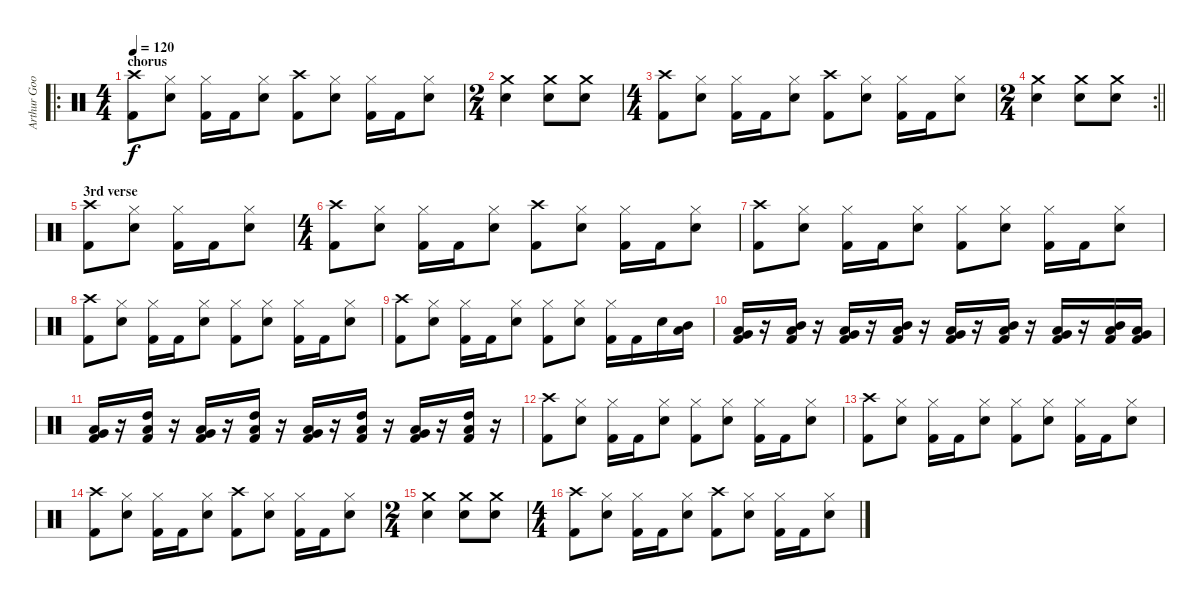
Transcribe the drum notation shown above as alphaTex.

\track ("Arthur Googy" "Arthur Goo") {instrument percussion}
\staff {score}
\articulation defaults
\ro
\ts (4 4)
\section ("" "chorus")
\tempo 120
\clef neutral
\ks c
("Crash high (hit)" "Kick (hit) 2").8{dy f} ("Hi-Hat (closed)" "Snare (hit) 2").8 ("Hi-Hat (closed)" "Kick (hit) 2").16 "Kick (hit) 2".16 ("Hi-Hat (closed)" "Snare (hit) 2").8 ("Crash high (hit)" "Kick (hit) 2").8 ("Hi-Hat (closed)" "Snare (hit) 2").8 ("Hi-Hat (closed)" "Kick (hit) 2").16 "Kick (hit) 2".16 ("Hi-Hat (closed)" "Snare (hit) 2").8 |
\ts (2 4)
("Crash medium (hit)" "Snare (hit) 2").4 ("Crash medium (hit)" "Snare (hit) 2").8 ("Crash medium (hit)" "Snare (hit) 2").8 |
\ts (4 4)
("Crash high (hit)" "Kick (hit) 2").8 ("Hi-Hat (closed)" "Snare (hit) 2").8 ("Hi-Hat (closed)" "Kick (hit) 2").16 "Kick (hit) 2".16 ("Hi-Hat (closed)" "Snare (hit) 2").8 ("Crash high (hit)" "Kick (hit) 2").8 ("Hi-Hat (closed)" "Snare (hit) 2").8 ("Hi-Hat (closed)" "Kick (hit) 2").16 "Kick (hit) 2".16 ("Hi-Hat (closed)" "Snare (hit) 2").8 |
\rc 2
\ts (2 4)
\barLineRight lightlight
("Crash medium (hit)" "Snare (hit) 2").4 ("Crash medium (hit)" "Snare (hit) 2").8 ("Crash medium (hit)" "Snare (hit) 2").8 |
\section ("" "3rd verse")
("Crash high (hit)" "Kick (hit) 2").8 ("Hi-Hat (closed)" "Snare (hit) 2").8 ("Hi-Hat (closed)" "Kick (hit) 2").16 "Kick (hit) 2".16 ("Hi-Hat (closed)" "Snare (hit) 2").8 |
\ts (4 4)
("Crash high (hit)" "Kick (hit) 2").8 ("Hi-Hat (closed)" "Snare (hit) 2").8 ("Hi-Hat (closed)" "Kick (hit) 2").16 "Kick (hit) 2".16 ("Hi-Hat (closed)" "Snare (hit) 2").8 ("Crash high (hit)" "Kick (hit) 2").8 ("Hi-Hat (closed)" "Snare (hit) 2").8 ("Hi-Hat (closed)" "Kick (hit) 2").16 "Kick (hit) 2".16 ("Hi-Hat (closed)" "Snare (hit) 2").8 |
("Crash high (hit)" "Kick (hit) 2").8 ("Hi-Hat (closed)" "Snare (hit) 2").8 ("Hi-Hat (closed)" "Kick (hit) 2").16 "Kick (hit) 2".16 ("Hi-Hat (closed)" "Snare (hit) 2").8 ("Hi-Hat (closed)" "Kick (hit) 2").8 ("Hi-Hat (closed)" "Snare (hit) 2").8 ("Hi-Hat (closed)" "Kick (hit) 2").16 "Kick (hit) 2".16 ("Hi-Hat (closed)" "Snare (hit) 2").8 |
("Crash high (hit)" "Kick (hit) 2").8 ("Hi-Hat (closed)" "Snare (hit) 2").8 ("Hi-Hat (closed)" "Kick (hit) 2").16 "Kick (hit) 2".16 ("Hi-Hat (closed)" "Snare (hit) 2").8 ("Hi-Hat (closed)" "Kick (hit) 2").8 ("Hi-Hat (closed)" "Snare (hit) 2").8 ("Hi-Hat (closed)" "Kick (hit) 2").16 "Kick (hit) 2".16 ("Hi-Hat (closed)" "Snare (hit) 2").8 |
("Crash high (hit)" "Kick (hit) 2").8 ("Hi-Hat (closed)" "Snare (hit) 2").8 ("Hi-Hat (closed)" "Kick (hit) 2").16 "Kick (hit) 2".16 ("Hi-Hat (closed)" "Snare (hit) 2").8 ("Hi-Hat (closed)" "Kick (hit) 2").8 ("Hi-Hat (closed)" "Snare (hit) 2").8 ("Hi-Hat (closed)" "Kick (hit) 2").16 "Kick (hit) 2".16 "Snare (hit) 2".16 ("Mid Tom (hit)" "Low Tom (hit)").16 |
("Low Tom (hit)" "Very Low Tom (hit)" "Kick (hit) 2").16 r.16 ("Mid Tom (hit)" "Low Tom (hit)" "Kick (hit) 2").16 r.16 ("Low Tom (hit)" "Very Low Tom (hit)" "Kick (hit) 2").16 r.16 ("Mid Tom (hit)" "Low Tom (hit)" "Kick (hit) 2").16 r.16 ("Low Tom (hit)" "Very Low Tom (hit)" "Kick (hit) 2").16 r.16 ("Mid Tom (hit)" "Low Tom (hit)" "Kick (hit) 2").16 r.16 ("Low Tom (hit)" "Very Low Tom (hit)" "Kick (hit) 2").16 r.16 ("Mid Tom (hit)" "Low Tom (hit)" "Kick (hit) 2").16 ("Low Tom (hit)" "Very Low Tom (hit)" "Kick (hit) 2").16 |
("Low Tom (hit)" "Very Low Tom (hit)" "Kick (hit) 2").16 r.16 ("High Tom (hit)" "Low Tom (hit)" "Kick (hit) 2").16 r.16 ("Low Tom (hit)" "Very Low Tom (hit)" "Kick (hit) 2").16 r.16 ("High Tom (hit)" "Low Tom (hit)" "Kick (hit) 2").16 r.16 ("Low Tom (hit)" "Very Low Tom (hit)" "Kick (hit) 2").16 r.16 ("High Tom (hit)" "Low Tom (hit)" "Kick (hit) 2").16 r.16 ("Low Tom (hit)" "Very Low Tom (hit)" "Kick (hit) 2").16 r.16 ("High Tom (hit)" "Low Tom (hit)" "Kick (hit) 2").16 r.16 |
("Crash high (hit)" "Kick (hit) 2").8 ("Hi-Hat (closed)" "Snare (hit) 2").8 ("Hi-Hat (closed)" "Kick (hit) 2").16 "Kick (hit) 2".16 ("Hi-Hat (closed)" "Snare (hit) 2").8 ("Hi-Hat (closed)" "Kick (hit) 2").8 ("Hi-Hat (closed)" "Snare (hit) 2").8 ("Hi-Hat (closed)" "Kick (hit) 2").16 "Kick (hit) 2".16 ("Hi-Hat (closed)" "Snare (hit) 2").8 |
("Crash high (hit)" "Kick (hit) 2").8 ("Hi-Hat (closed)" "Snare (hit) 2").8 ("Hi-Hat (closed)" "Kick (hit) 2").16 "Kick (hit) 2".16 ("Hi-Hat (closed)" "Snare (hit) 2").8 ("Hi-Hat (closed)" "Kick (hit) 2").8 ("Hi-Hat (closed)" "Snare (hit) 2").8 ("Hi-Hat (closed)" "Kick (hit) 2").16 "Kick (hit) 2".16 ("Hi-Hat (closed)" "Snare (hit) 2").8 |
("Crash high (hit)" "Kick (hit) 2").8 ("Hi-Hat (closed)" "Snare (hit) 2").8 ("Hi-Hat (closed)" "Kick (hit) 2").16 "Kick (hit) 2".16 ("Hi-Hat (closed)" "Snare (hit) 2").8 ("Crash high (hit)" "Kick (hit) 2").8 ("Hi-Hat (closed)" "Snare (hit) 2").8 ("Hi-Hat (closed)" "Kick (hit) 2").16 "Kick (hit) 2".16 ("Hi-Hat (closed)" "Snare (hit) 2").8 |
\ts (2 4)
("Crash medium (hit)" "Snare (hit) 2").4 ("Crash medium (hit)" "Snare (hit) 2").8 ("Crash medium (hit)" "Snare (hit) 2").8 |
\ts (4 4)
("Crash high (hit)" "Kick (hit) 2").8 ("Hi-Hat (closed)" "Snare (hit) 2").8 ("Hi-Hat (closed)" "Kick (hit) 2").16 "Kick (hit) 2".16 ("Hi-Hat (closed)" "Snare (hit) 2").8 ("Crash high (hit)" "Kick (hit) 2").8 ("Hi-Hat (closed)" "Snare (hit) 2").8 ("Hi-Hat (closed)" "Kick (hit) 2").16 "Kick (hit) 2".16 ("Hi-Hat (closed)" "Snare (hit) 2").8
